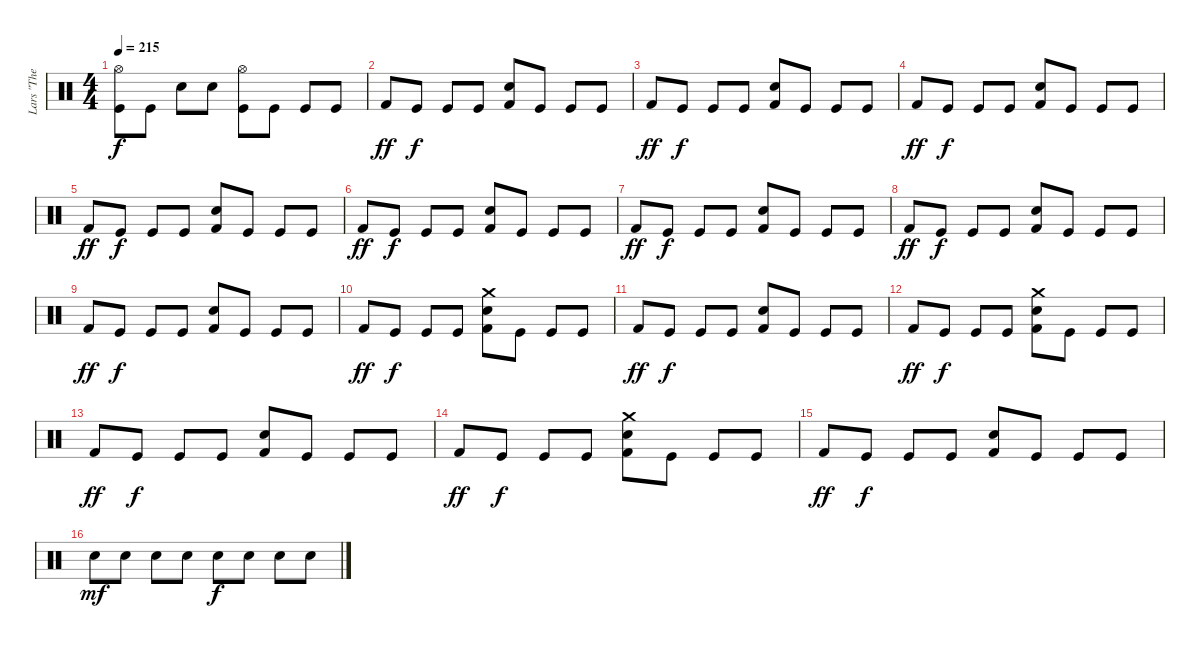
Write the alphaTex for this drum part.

\track ("Lars \"The Antichrist\" Ulrich" "Lars \"The ") {instrument percussion}
\staff {score}
\articulation defaults
\ts (4 4)
\tempo 215
\clef neutral
\ks c
("Hi-Hat (open)" "Kick (hit)").8{dy f} "Kick (hit)".8 "Electric Snare (hit)".8 "Electric Snare (hit)".8 ("Hi-Hat (open)" "Kick (hit)").8 "Kick (hit)".8 "Kick (hit)".8 "Kick (hit)".8 |
"Kick (hit) 2".8{dy ff} "Kick (hit)".8{dy f} "Kick (hit)".8 "Kick (hit)".8 ("Electric Snare (hit)" "Kick (hit) 2").8 "Kick (hit)".8 "Kick (hit)".8 "Kick (hit)".8 |
"Kick (hit) 2".8{dy ff} "Kick (hit)".8{dy f} "Kick (hit)".8 "Kick (hit)".8 ("Electric Snare (hit)" "Kick (hit) 2").8 "Kick (hit)".8 "Kick (hit)".8 "Kick (hit)".8 |
"Kick (hit) 2".8{dy ff} "Kick (hit)".8{dy f} "Kick (hit)".8 "Kick (hit)".8 ("Electric Snare (hit)" "Kick (hit) 2").8 "Kick (hit)".8 "Kick (hit)".8 "Kick (hit)".8 |
"Kick (hit) 2".8{dy ff} "Kick (hit)".8{dy f} "Kick (hit)".8 "Kick (hit)".8 ("Electric Snare (hit)" "Kick (hit) 2").8 "Kick (hit)".8 "Kick (hit)".8 "Kick (hit)".8 |
"Kick (hit) 2".8{dy ff} "Kick (hit)".8{dy f} "Kick (hit)".8 "Kick (hit)".8 ("Electric Snare (hit)" "Kick (hit) 2").8 "Kick (hit)".8 "Kick (hit)".8 "Kick (hit)".8 |
"Kick (hit) 2".8{dy ff} "Kick (hit)".8{dy f} "Kick (hit)".8 "Kick (hit)".8 ("Electric Snare (hit)" "Kick (hit) 2").8 "Kick (hit)".8 "Kick (hit)".8 "Kick (hit)".8 |
"Kick (hit) 2".8{dy ff} "Kick (hit)".8{dy f} "Kick (hit)".8 "Kick (hit)".8 ("Electric Snare (hit)" "Kick (hit) 2").8 "Kick (hit)".8 "Kick (hit)".8 "Kick (hit)".8 |
"Kick (hit) 2".8{dy ff} "Kick (hit)".8{dy f} "Kick (hit)".8 "Kick (hit)".8 ("Electric Snare (hit)" "Kick (hit) 2").8 "Kick (hit)".8 "Kick (hit)".8 "Kick (hit)".8 |
"Kick (hit) 2".8{dy ff} "Kick (hit)".8{dy f} "Kick (hit)".8 "Kick (hit)".8 ("Crash medium (hit)" "Electric Snare (hit)" "Kick (hit) 2").8 "Kick (hit)".8 "Kick (hit)".8 "Kick (hit)".8 |
"Kick (hit) 2".8{dy ff} "Kick (hit)".8{dy f} "Kick (hit)".8 "Kick (hit)".8 ("Electric Snare (hit)" "Kick (hit) 2").8 "Kick (hit)".8 "Kick (hit)".8 "Kick (hit)".8 |
"Kick (hit) 2".8{dy ff} "Kick (hit)".8{dy f} "Kick (hit)".8 "Kick (hit)".8 ("Crash medium (hit)" "Electric Snare (hit)" "Kick (hit) 2").8 "Kick (hit)".8 "Kick (hit)".8 "Kick (hit)".8 |
"Kick (hit) 2".8{dy ff} "Kick (hit)".8{dy f} "Kick (hit)".8 "Kick (hit)".8 ("Electric Snare (hit)" "Kick (hit) 2").8 "Kick (hit)".8 "Kick (hit)".8 "Kick (hit)".8 |
"Kick (hit) 2".8{dy ff} "Kick (hit)".8{dy f} "Kick (hit)".8 "Kick (hit)".8 ("Crash medium (hit)" "Electric Snare (hit)" "Kick (hit) 2").8 "Kick (hit)".8 "Kick (hit)".8 "Kick (hit)".8 |
"Kick (hit) 2".8{dy ff} "Kick (hit)".8{dy f} "Kick (hit)".8 "Kick (hit)".8 ("Electric Snare (hit)" "Kick (hit) 2").8 "Kick (hit)".8 "Kick (hit)".8 "Kick (hit)".8 |
"Electric Snare (hit)".8{dy mf} "Electric Snare (hit)".8 "Electric Snare (hit)".8 "Electric Snare (hit)".8 "Electric Snare (hit)".8{dy f} "Electric Snare (hit)".8 "Electric Snare (hit)".8 "Electric Snare (hit)".8
